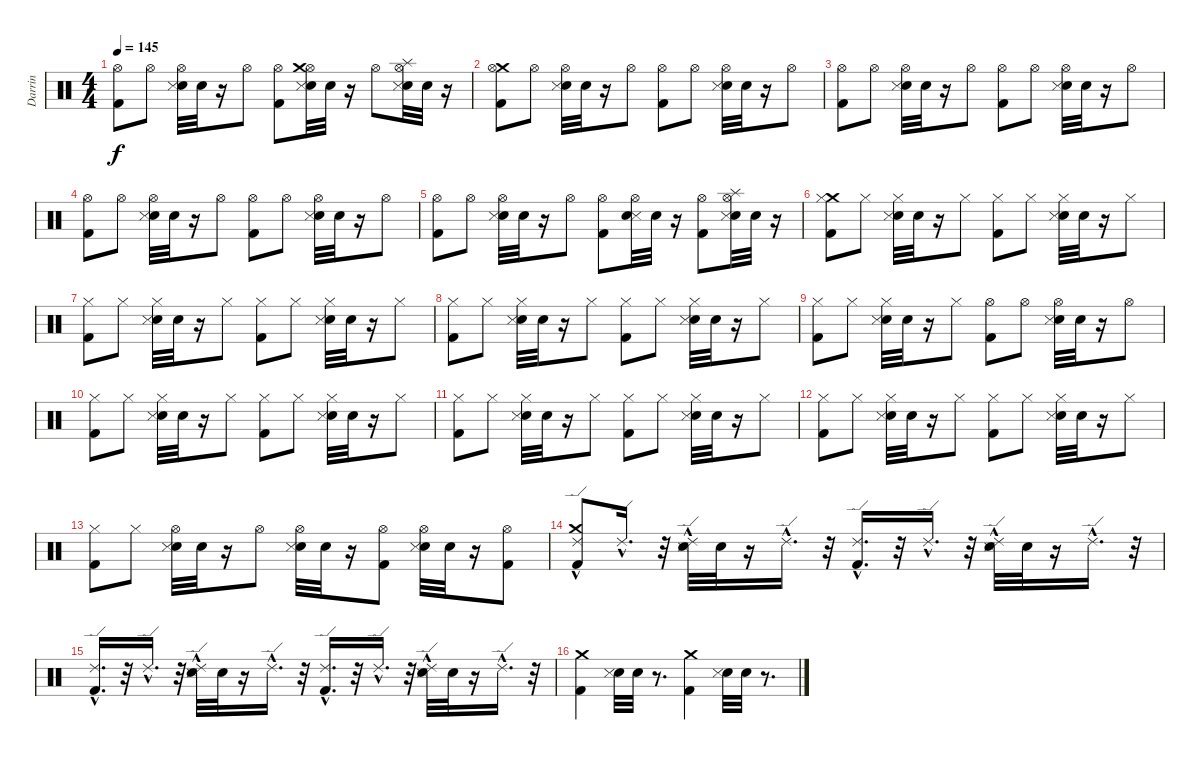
\track ("Darrin" "Darrin") {instrument percussion}
\staff {score}
\articulation defaults
\ts (4 4)
\tempo 145
\clef neutral
\ks c
("Kick (hit) 2" "Hi-Hat (open)").8{dy f} "Hi-Hat (open)".8 ("Snare (hit) 2" "Snare (side stick) 3" "Hi-Hat (open)").32 "Snare (hit) 2".32 r.16 "Hi-Hat (open)".8 ("Kick (hit) 2" "Hi-Hat (open)").8 ("Hi-Hat (open)" "Snare (hit) 2" "Snare (side stick) 3" "Crash medium (hit)").32 "Snare (hit) 2".32 r.16 "Hi-Hat (open)".8 ("Hi-Hat (open)" "Snare (hit) 2" "Snare (side stick) 3" "Splash (hit)").32 "Snare (hit) 2".32 r.16 |
("Kick (hit) 2" "Crash medium (hit)" "Hi-Hat (open)").8 "Hi-Hat (open)".8 ("Snare (hit) 2" "Snare (side stick) 3" "Hi-Hat (open)").32 "Snare (hit) 2".32 r.16 "Hi-Hat (open)".8 ("Kick (hit) 2" "Hi-Hat (open)").8 "Hi-Hat (open)".8 ("Snare (hit) 2" "Snare (side stick) 3" "Hi-Hat (open)").32 "Snare (hit) 2".32 r.16 "Hi-Hat (open)".8 |
("Kick (hit) 2" "Hi-Hat (open)").8 "Hi-Hat (open)".8 ("Snare (hit) 2" "Snare (side stick) 3" "Hi-Hat (open)").32 "Snare (hit) 2".32 r.16 "Hi-Hat (open)".8 ("Kick (hit) 2" "Hi-Hat (open)").8 "Hi-Hat (open)".8 ("Snare (hit) 2" "Snare (side stick) 3" "Hi-Hat (open)").32 "Snare (hit) 2".32 r.16 "Hi-Hat (open)".8 |
("Hi-Hat (open)" "Kick (hit) 2").8 "Hi-Hat (open)".8 ("Hi-Hat (open)" "Snare (hit) 2" "Snare (side stick) 3").32 "Snare (hit) 2".32 r.16 "Hi-Hat (open)".8 ("Hi-Hat (open)" "Kick (hit) 2").8 "Hi-Hat (open)".8 ("Hi-Hat (open)" "Snare (hit) 2" "Snare (side stick) 3").32 "Snare (hit) 2".32 r.16 "Hi-Hat (open)".8 |
("Kick (hit) 2" "Hi-Hat (open)").8 "Hi-Hat (open)".8 ("Snare (hit) 2" "Snare (side stick) 3" "Hi-Hat (open)").32 "Snare (hit) 2".32 r.16 "Hi-Hat (open)".8 ("Kick (hit) 2" "Hi-Hat (open)").8 ("Hi-Hat (open)" "Snare (side stick) 3" "Snare (hit) 2").32 "Snare (hit) 2".32 r.16 ("Hi-Hat (open)" "Kick (hit) 2").8 ("Hi-Hat (open)" "Splash (hit)" "Snare (hit) 2" "Snare (side stick) 3").32 "Snare (hit) 2".32 r.16 |
("Crash medium (hit)" "Kick (hit) 2" "Hi-Hat (closed)").8 "Hi-Hat (closed)".8 ("Snare (hit) 2" "Snare (side stick) 3" "Hi-Hat (closed)").32 "Snare (hit) 2".32 r.16 "Hi-Hat (closed)".8 ("Kick (hit) 2" "Hi-Hat (closed)").8 "Hi-Hat (closed)".8 ("Snare (hit) 2" "Snare (side stick) 3" "Hi-Hat (closed)").32 "Snare (hit) 2".32 r.16 "Hi-Hat (closed)".8 |
("Kick (hit) 2" "Hi-Hat (closed)").8 "Hi-Hat (closed)".8 ("Snare (hit) 2" "Snare (side stick) 3" "Hi-Hat (closed)").32 "Snare (hit) 2".32 r.16 "Hi-Hat (closed)".8 ("Kick (hit) 2" "Hi-Hat (closed)").8 "Hi-Hat (closed)".8 ("Snare (hit) 2" "Snare (side stick) 3" "Hi-Hat (closed)").32 "Snare (hit) 2".32 r.16 "Hi-Hat (closed)".8 |
("Kick (hit) 2" "Hi-Hat (closed)").8 "Hi-Hat (closed)".8 ("Snare (hit) 2" "Snare (side stick) 3" "Hi-Hat (closed)").32 "Snare (hit) 2".32 r.16 "Hi-Hat (closed)".8 ("Kick (hit) 2" "Hi-Hat (closed)").8 "Hi-Hat (closed)".8 ("Snare (hit) 2" "Snare (side stick) 3" "Hi-Hat (closed)").32 "Snare (hit) 2".32 r.16 "Hi-Hat (closed)".8 |
("Kick (hit) 2" "Hi-Hat (closed)").8 "Hi-Hat (closed)".8 ("Snare (hit) 2" "Snare (side stick) 3" "Hi-Hat (closed)").32 "Snare (hit) 2".32 r.16 "Hi-Hat (closed)".8 ("Kick (hit) 2" "Hi-Hat (open)").8 "Hi-Hat (open)".8 ("Snare (hit) 2" "Snare (side stick) 3" "Hi-Hat (open)").32 "Snare (hit) 2".32 r.16 "Hi-Hat (open)".8 |
("Kick (hit) 2" "Hi-Hat (closed)").8 "Hi-Hat (closed)".8 ("Snare (hit) 2" "Snare (side stick) 3" "Hi-Hat (closed)").32 "Snare (hit) 2".32 r.16 "Hi-Hat (closed)".8 ("Kick (hit) 2" "Hi-Hat (closed)").8 "Hi-Hat (closed)".8 ("Snare (hit) 2" "Snare (side stick) 3" "Hi-Hat (closed)").32 "Snare (hit) 2".32 r.16 "Hi-Hat (closed)".8 |
("Kick (hit) 2" "Hi-Hat (closed)").8 "Hi-Hat (closed)".8 ("Snare (hit) 2" "Snare (side stick) 3" "Hi-Hat (closed)").32 "Snare (hit) 2".32 r.16 "Hi-Hat (closed)".8 ("Kick (hit) 2" "Hi-Hat (closed)").8 "Hi-Hat (closed)".8 ("Snare (hit) 2" "Snare (side stick) 3" "Hi-Hat (closed)").32 "Snare (hit) 2".32 r.16 "Hi-Hat (closed)".8 |
("Kick (hit) 2" "Hi-Hat (closed)").8 "Hi-Hat (closed)".8 ("Snare (hit) 2" "Snare (side stick) 3" "Hi-Hat (closed)").32 "Snare (hit) 2".32 r.16 "Hi-Hat (closed)".8 ("Kick (hit) 2" "Hi-Hat (closed)").8 "Hi-Hat (closed)".8 ("Snare (hit) 2" "Snare (side stick) 3" "Hi-Hat (closed)").32 "Snare (hit) 2".32 r.16 "Hi-Hat (closed)".8 |
("Kick (hit) 2" "Hi-Hat (closed)").8 "Hi-Hat (closed)".8 ("Snare (hit) 2" "Snare (side stick) 3" "Hi-Hat (open)").32 "Snare (hit) 2".32 r.16 "Hi-Hat (open)".8 ("Snare (hit) 2" "Snare (side stick) 3" "Hi-Hat (open)").32 "Snare (hit) 2".32 r.16 ("Kick (hit) 2" "Hi-Hat (open)").8 ("Snare (hit) 2" "Snare (side stick) 3" "Hi-Hat (open)").32 "Snare (hit) 2".32 r.16 ("Kick (hit) 2" "Hi-Hat (open)").8 |
("Kick (hit) 2" "Ride (edge) 2"{hac} "Crash medium (hit)").8 "Ride (edge) 2"{hac}.16{d} r.32 ("Snare (hit) 2" "Snare (side stick) 3" "Ride (edge) 2"{hac}).32 "Snare (hit) 2".32 r.16 "Ride (edge) 2"{hac}.16{d} r.32 ("Kick (hit) 2" "Ride (edge) 2"{hac}).16{d} r.32 "Ride (edge) 2"{hac}.16{d} r.32 ("Snare (hit) 2" "Snare (side stick) 3" "Ride (edge) 2"{hac}).32 "Snare (hit) 2".32 r.16 "Ride (edge) 2"{hac}.16{d} r.32 |
("Kick (hit) 2" "Ride (edge) 2"{hac}).16{d} r.32 "Ride (edge) 2"{hac}.16{d} r.32 ("Ride (edge) 2"{hac} "Snare (hit) 2" "Snare (side stick) 3").32 "Snare (hit) 2".32 r.16 "Ride (edge) 2"{hac}.16{d} r.32 ("Kick (hit) 2" "Ride (edge) 2"{hac}).16{d} r.32 "Ride (edge) 2"{hac}.16{d} r.32 ("Snare (hit) 2" "Snare (side stick) 3" "Ride (edge) 2"{hac}).32 "Snare (hit) 2".32 r.16 "Ride (edge) 2"{hac}.16{d} r.32 |
("Kick (hit) 2" "Crash medium (hit)").4 ("Snare (hit) 2" "Snare (side stick) 3").32 "Snare (hit) 2".32 r.8{d} ("Kick (hit) 2" "Crash medium (hit)").4 ("Snare (hit) 2" "Snare (side stick) 3").32 "Snare (hit) 2".32 r.8{d}
